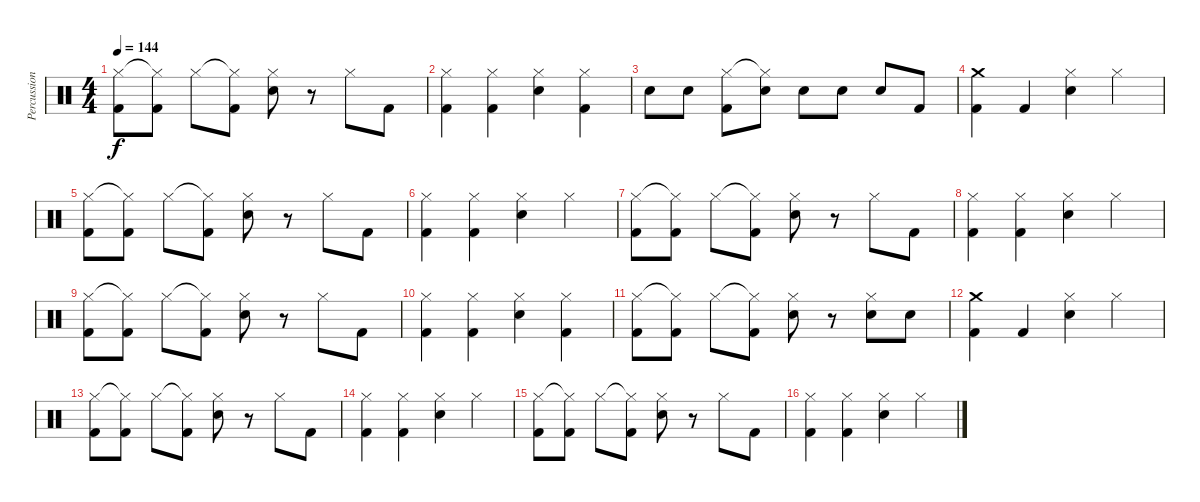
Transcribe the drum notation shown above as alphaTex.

\track ("Percussion" "Percussion") {instrument percussion}
\staff {score}
\articulation defaults
\ts (4 4)
\tempo 144
\clef neutral
\ks c
("Hi-Hat (closed)" "Kick (hit) 2").8{dy f} ("Hi-Hat (closed)"{t} "Kick (hit) 2").8 "Hi-Hat (closed)".8 ("Hi-Hat (closed)"{t} "Kick (hit) 2").8 ("Hi-Hat (closed)" "Snare (hit) 2").8 r.8 "Hi-Hat (closed)".8 "Kick (hit) 2".8 |
("Hi-Hat (closed)" "Kick (hit) 2").4 ("Hi-Hat (closed)" "Kick (hit) 2").4 ("Hi-Hat (closed)" "Snare (hit) 2").4 ("Hi-Hat (closed)" "Kick (hit) 2").4 |
"Snare (hit) 2".8 "Snare (hit) 2".8 ("Hi-Hat (closed)" "Kick (hit) 2").8 ("Hi-Hat (closed)"{t} "Snare (hit) 2").8 "Snare (hit) 2".8 "Snare (hit) 2".8 "Snare (hit) 2".8 "Kick (hit) 2".8 |
("Crash medium (hit)" "Kick (hit) 2").4 "Kick (hit) 2".4 ("Hi-Hat (closed)" "Snare (hit) 2").4 "Hi-Hat (closed)".4 |
("Hi-Hat (closed)" "Kick (hit) 2").8 ("Hi-Hat (closed)"{t} "Kick (hit) 2").8 "Hi-Hat (closed)".8 ("Hi-Hat (closed)"{t} "Kick (hit) 2").8 ("Hi-Hat (closed)" "Snare (hit) 2").8 r.8 "Hi-Hat (closed)".8 "Kick (hit) 2".8 |
("Hi-Hat (closed)" "Kick (hit) 2").4 ("Hi-Hat (closed)" "Kick (hit) 2").4 ("Hi-Hat (closed)" "Snare (hit) 2").4 "Hi-Hat (closed)".4 |
("Hi-Hat (closed)" "Kick (hit) 2").8 ("Hi-Hat (closed)"{t} "Kick (hit) 2").8 "Hi-Hat (closed)".8 ("Hi-Hat (closed)"{t} "Kick (hit) 2").8 ("Hi-Hat (closed)" "Snare (hit) 2").8 r.8 "Hi-Hat (closed)".8 "Kick (hit) 2".8 |
("Hi-Hat (closed)" "Kick (hit) 2").4 ("Hi-Hat (closed)" "Kick (hit) 2").4 ("Hi-Hat (closed)" "Snare (hit) 2").4 "Hi-Hat (closed)".4 |
("Hi-Hat (closed)" "Kick (hit) 2").8 ("Hi-Hat (closed)"{t} "Kick (hit) 2").8 "Hi-Hat (closed)".8 ("Hi-Hat (closed)"{t} "Kick (hit) 2").8 ("Hi-Hat (closed)" "Snare (hit) 2").8 r.8 "Hi-Hat (closed)".8 "Kick (hit) 2".8 |
("Hi-Hat (closed)" "Kick (hit) 2").4 ("Hi-Hat (closed)" "Kick (hit) 2").4 ("Hi-Hat (closed)" "Snare (hit) 2").4 ("Hi-Hat (closed)" "Kick (hit) 2").4 |
("Hi-Hat (closed)" "Kick (hit) 2").8 ("Hi-Hat (closed)"{t} "Kick (hit) 2").8 "Hi-Hat (closed)".8 ("Hi-Hat (closed)"{t} "Kick (hit) 2").8 ("Hi-Hat (closed)" "Snare (hit) 2").8 r.8 ("Hi-Hat (closed)" "Snare (hit) 2").8 "Snare (hit) 2".8 |
("Crash medium (hit)" "Kick (hit) 2").4 "Kick (hit) 2".4 ("Hi-Hat (closed)" "Snare (hit) 2").4 "Hi-Hat (closed)".4 |
("Hi-Hat (closed)" "Kick (hit) 2").8 ("Hi-Hat (closed)"{t} "Kick (hit) 2").8 "Hi-Hat (closed)".8 ("Hi-Hat (closed)"{t} "Kick (hit) 2").8 ("Hi-Hat (closed)" "Snare (hit) 2").8 r.8 "Hi-Hat (closed)".8 "Kick (hit) 2".8 |
("Hi-Hat (closed)" "Kick (hit) 2").4 ("Hi-Hat (closed)" "Kick (hit) 2").4 ("Hi-Hat (closed)" "Snare (hit) 2").4 "Hi-Hat (closed)".4 |
("Hi-Hat (closed)" "Kick (hit) 2").8 ("Hi-Hat (closed)"{t} "Kick (hit) 2").8 "Hi-Hat (closed)".8 ("Hi-Hat (closed)"{t} "Kick (hit) 2").8 ("Hi-Hat (closed)" "Snare (hit) 2").8 r.8 "Hi-Hat (closed)".8 "Kick (hit) 2".8 |
("Hi-Hat (closed)" "Kick (hit) 2").4 ("Hi-Hat (closed)" "Kick (hit) 2").4 ("Hi-Hat (closed)" "Snare (hit) 2").4 "Hi-Hat (closed)".4
